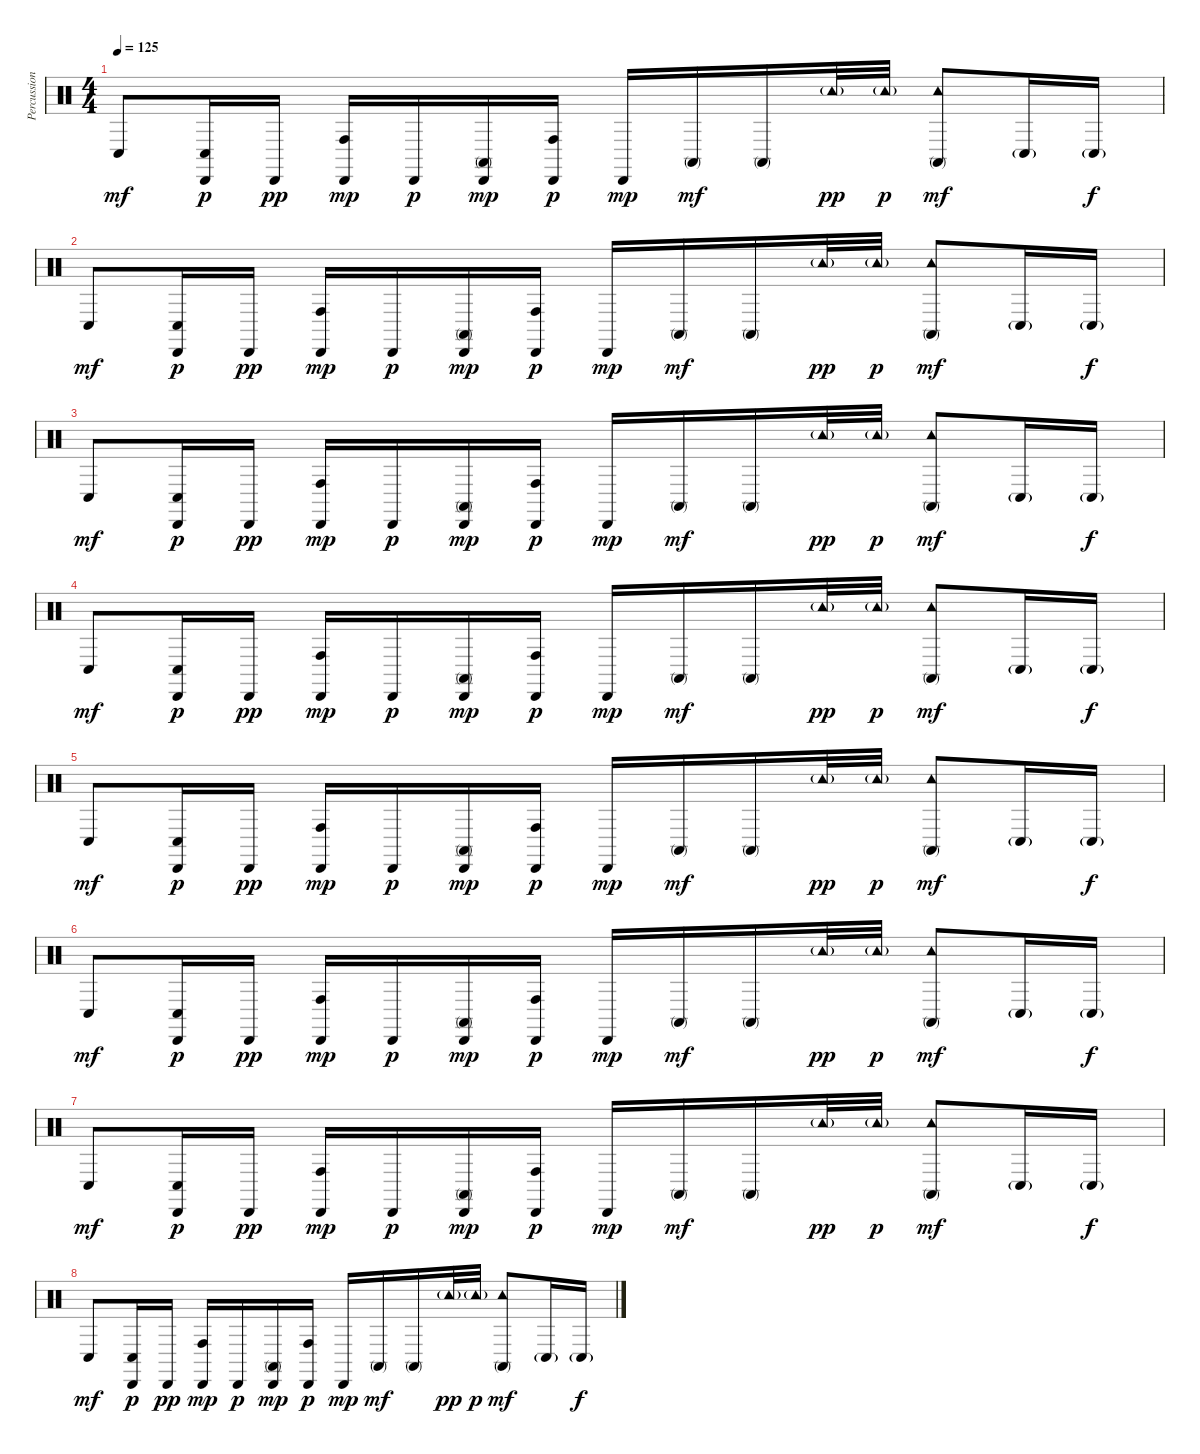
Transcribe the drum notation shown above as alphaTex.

\track ("Percussion" "Percussion") {instrument percussion}
\staff {score}
\articulation defaults
\ts (4 4)
\tempo 125
\clef neutral
\ks c "Conga low (hit)".8{dy mf}
("Conga low (hit)" "Cabasa (hit)").16{dy p} "Cabasa (hit)".16{dy pp} ("Conga high (hit)" "Cabasa (hit)").16{dy mp} "Cabasa (hit)".16{dy p} ("Conga high (mute)" "Cabasa (hit)").16{dy mp} ("Conga high (hit)" "Cabasa (hit)").16{dy p} "Cabasa (hit)".16{dy mp} "Conga high (mute)".16{dy mf} "Conga high (mute)".16 "Tambourine (hit)"{g}.32{dy pp} "Tambourine (hit)"{g}.32{dy p} ("Conga high (mute)" "Tambourine (hit)").8{dy mf} "Conga low (hit)"{g}.16 "Conga low (hit)"{g}.16{dy f} |
"Conga low (hit)".8{dy mf} ("Conga low (hit)" "Cabasa (hit)").16{dy p} "Cabasa (hit)".16{dy pp} ("Conga high (hit)" "Cabasa (hit)").16{dy mp} "Cabasa (hit)".16{dy p} ("Conga high (mute)" "Cabasa (hit)").16{dy mp} ("Conga high (hit)" "Cabasa (hit)").16{dy p} "Cabasa (hit)".16{dy mp} "Conga high (mute)".16{dy mf} "Conga high (mute)".16 "Tambourine (hit)"{g}.32{dy pp} "Tambourine (hit)"{g}.32{dy p} ("Conga high (mute)" "Tambourine (hit)").8{dy mf} "Conga low (hit)"{g}.16 "Conga low (hit)"{g}.16{dy f} |
"Conga low (hit)".8{dy mf} ("Conga low (hit)" "Cabasa (hit)").16{dy p} "Cabasa (hit)".16{dy pp} ("Conga high (hit)" "Cabasa (hit)").16{dy mp} "Cabasa (hit)".16{dy p} ("Conga high (mute)" "Cabasa (hit)").16{dy mp} ("Conga high (hit)" "Cabasa (hit)").16{dy p} "Cabasa (hit)".16{dy mp} "Conga high (mute)".16{dy mf} "Conga high (mute)".16 "Tambourine (hit)"{g}.32{dy pp} "Tambourine (hit)"{g}.32{dy p} ("Conga high (mute)" "Tambourine (hit)").8{dy mf} "Conga low (hit)"{g}.16 "Conga low (hit)"{g}.16{dy f} |
"Conga low (hit)".8{dy mf} ("Conga low (hit)" "Cabasa (hit)").16{dy p} "Cabasa (hit)".16{dy pp} ("Conga high (hit)" "Cabasa (hit)").16{dy mp} "Cabasa (hit)".16{dy p} ("Conga high (mute)" "Cabasa (hit)").16{dy mp} ("Conga high (hit)" "Cabasa (hit)").16{dy p} "Cabasa (hit)".16{dy mp} "Conga high (mute)".16{dy mf} "Conga high (mute)".16 "Tambourine (hit)"{g}.32{dy pp} "Tambourine (hit)"{g}.32{dy p} ("Conga high (mute)" "Tambourine (hit)").8{dy mf} "Conga low (hit)"{g}.16 "Conga low (hit)"{g}.16{dy f} |
"Conga low (hit)".8{dy mf} ("Conga low (hit)" "Cabasa (hit)").16{dy p} "Cabasa (hit)".16{dy pp} ("Conga high (hit)" "Cabasa (hit)").16{dy mp} "Cabasa (hit)".16{dy p} ("Conga high (mute)" "Cabasa (hit)").16{dy mp} ("Conga high (hit)" "Cabasa (hit)").16{dy p} "Cabasa (hit)".16{dy mp} "Conga high (mute)".16{dy mf} "Conga high (mute)".16 "Tambourine (hit)"{g}.32{dy pp} "Tambourine (hit)"{g}.32{dy p} ("Conga high (mute)" "Tambourine (hit)").8{dy mf} "Conga low (hit)"{g}.16 "Conga low (hit)"{g}.16{dy f} |
"Conga low (hit)".8{dy mf} ("Conga low (hit)" "Cabasa (hit)").16{dy p} "Cabasa (hit)".16{dy pp} ("Conga high (hit)" "Cabasa (hit)").16{dy mp} "Cabasa (hit)".16{dy p} ("Conga high (mute)" "Cabasa (hit)").16{dy mp} ("Conga high (hit)" "Cabasa (hit)").16{dy p} "Cabasa (hit)".16{dy mp} "Conga high (mute)".16{dy mf} "Conga high (mute)".16 "Tambourine (hit)"{g}.32{dy pp} "Tambourine (hit)"{g}.32{dy p} ("Conga high (mute)" "Tambourine (hit)").8{dy mf} "Conga low (hit)"{g}.16 "Conga low (hit)"{g}.16{dy f} |
"Conga low (hit)".8{dy mf} ("Conga low (hit)" "Cabasa (hit)").16{dy p} "Cabasa (hit)".16{dy pp} ("Conga high (hit)" "Cabasa (hit)").16{dy mp} "Cabasa (hit)".16{dy p} ("Conga high (mute)" "Cabasa (hit)").16{dy mp} ("Conga high (hit)" "Cabasa (hit)").16{dy p} "Cabasa (hit)".16{dy mp} "Conga high (mute)".16{dy mf} "Conga high (mute)".16 "Tambourine (hit)"{g}.32{dy pp} "Tambourine (hit)"{g}.32{dy p} ("Conga high (mute)" "Tambourine (hit)").8{dy mf} "Conga low (hit)"{g}.16 "Conga low (hit)"{g}.16{dy f} |
"Conga low (hit)".8{dy mf} ("Conga low (hit)" "Cabasa (hit)").16{dy p} "Cabasa (hit)".16{dy pp} ("Conga high (hit)" "Cabasa (hit)").16{dy mp} "Cabasa (hit)".16{dy p} ("Conga high (mute)" "Cabasa (hit)").16{dy mp} ("Conga high (hit)" "Cabasa (hit)").16{dy p} "Cabasa (hit)".16{dy mp} "Conga high (mute)".16{dy mf} "Conga high (mute)".16 "Tambourine (hit)"{g}.32{dy pp} "Tambourine (hit)"{g}.32{dy p} ("Conga high (mute)" "Tambourine (hit)").8{dy mf} "Conga low (hit)"{g}.16 "Conga low (hit)"{g}.16{dy f}
